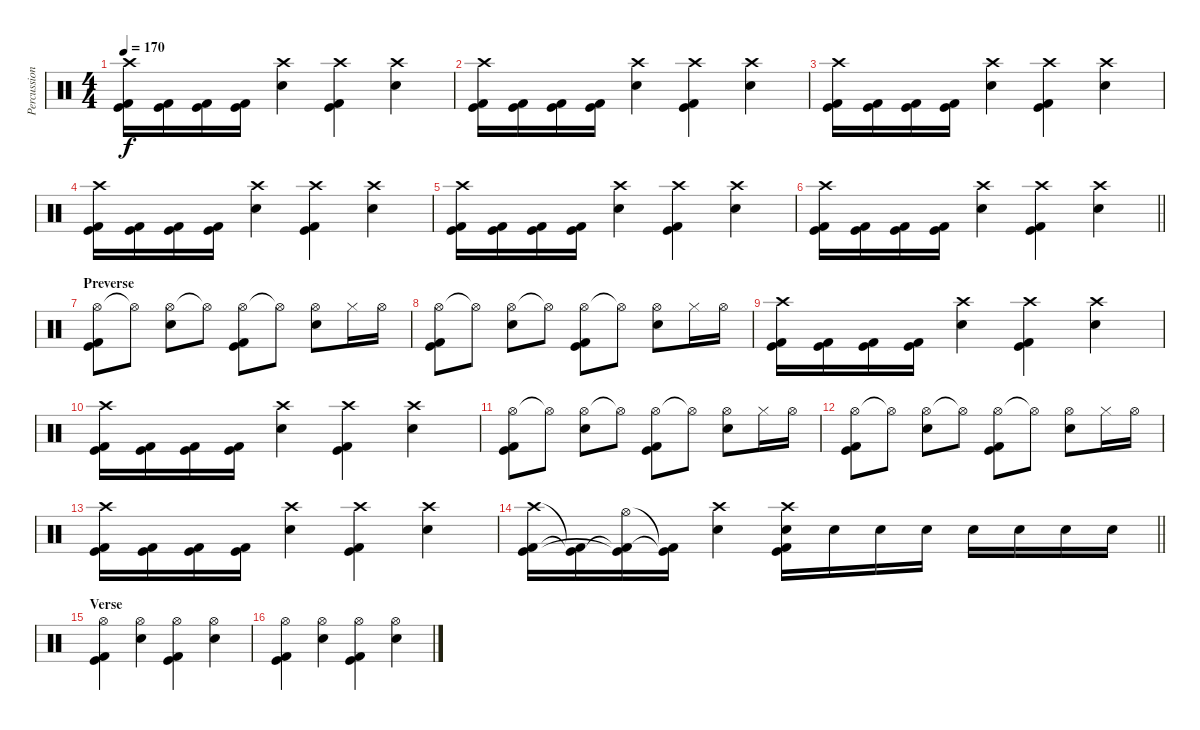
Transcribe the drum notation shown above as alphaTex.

\track ("Percussion" "Percussion") {instrument percussion}
\staff {score}
\articulation defaults
\ts (4 4)
\tempo 170
\clef neutral
\ks c
("Crash high (hit)" "Kick (hit) 2" "Kick (hit)").16{dy f} ("Kick (hit) 2" "Kick (hit)").16 ("Kick (hit) 2" "Kick (hit)").16 ("Kick (hit) 2" "Kick (hit)").16 ("Crash high (hit)" "Electric Snare (hit)").4 ("Crash high (hit)" "Kick (hit) 2" "Kick (hit)").4 ("Crash high (hit)" "Electric Snare (hit)").4 |
("Crash high (hit)" "Kick (hit) 2" "Kick (hit)").16 ("Kick (hit) 2" "Kick (hit)").16 ("Kick (hit) 2" "Kick (hit)").16 ("Kick (hit) 2" "Kick (hit)").16 ("Crash high (hit)" "Electric Snare (hit)").4 ("Crash high (hit)" "Kick (hit) 2" "Kick (hit)").4 ("Crash high (hit)" "Electric Snare (hit)").4 |
("Crash high (hit)" "Kick (hit) 2" "Kick (hit)").16 ("Kick (hit) 2" "Kick (hit)").16 ("Kick (hit) 2" "Kick (hit)").16 ("Kick (hit) 2" "Kick (hit)").16 ("Crash high (hit)" "Electric Snare (hit)").4 ("Crash high (hit)" "Kick (hit) 2" "Kick (hit)").4 ("Crash high (hit)" "Electric Snare (hit)").4 |
("Crash high (hit)" "Kick (hit) 2" "Kick (hit)").16 ("Kick (hit) 2" "Kick (hit)").16 ("Kick (hit) 2" "Kick (hit)").16 ("Kick (hit) 2" "Kick (hit)").16 ("Crash high (hit)" "Electric Snare (hit)").4 ("Crash high (hit)" "Kick (hit) 2" "Kick (hit)").4 ("Crash high (hit)" "Electric Snare (hit)").4 |
("Crash high (hit)" "Kick (hit) 2" "Kick (hit)").16 ("Kick (hit) 2" "Kick (hit)").16 ("Kick (hit) 2" "Kick (hit)").16 ("Kick (hit) 2" "Kick (hit)").16 ("Crash high (hit)" "Electric Snare (hit)").4 ("Crash high (hit)" "Kick (hit) 2" "Kick (hit)").4 ("Crash high (hit)" "Electric Snare (hit)").4 |
\barLineRight lightlight
("Crash high (hit)" "Kick (hit) 2" "Kick (hit)").16 ("Kick (hit) 2" "Kick (hit)").16 ("Kick (hit) 2" "Kick (hit)").16 ("Kick (hit) 2" "Kick (hit)").16 ("Crash high (hit)" "Electric Snare (hit)").4 ("Crash high (hit)" "Kick (hit) 2" "Kick (hit)").4 ("Crash high (hit)" "Electric Snare (hit)").4 |
\section ("" "Preverse")
("Hi-Hat (open)" "Kick (hit) 2" "Kick (hit)").8 "Hi-Hat (open)"{t}.8 ("Hi-Hat (open)" "Electric Snare (hit)").8 "Hi-Hat (open)"{t}.8 ("Hi-Hat (open)" "Kick (hit) 2" "Kick (hit)").8 "Hi-Hat (open)"{t}.8 ("Hi-Hat (open)" "Electric Snare (hit)").8 "Hi-Hat (closed)".16 "Hi-Hat (open)".16 |
("Hi-Hat (open)" "Kick (hit) 2" "Kick (hit)").8 "Hi-Hat (open)"{t}.8 ("Hi-Hat (open)" "Electric Snare (hit)").8 "Hi-Hat (open)"{t}.8 ("Hi-Hat (open)" "Kick (hit) 2" "Kick (hit)").8 "Hi-Hat (open)"{t}.8 ("Hi-Hat (open)" "Electric Snare (hit)").8 "Hi-Hat (closed)".16 "Hi-Hat (open)".16 |
("Crash high (hit)" "Kick (hit) 2" "Kick (hit)").16 ("Kick (hit) 2" "Kick (hit)").16 ("Kick (hit) 2" "Kick (hit)").16 ("Kick (hit) 2" "Kick (hit)").16 ("Crash high (hit)" "Electric Snare (hit)").4 ("Crash high (hit)" "Kick (hit) 2" "Kick (hit)").4 ("Crash high (hit)" "Electric Snare (hit)").4 |
("Crash high (hit)" "Kick (hit) 2" "Kick (hit)").16 ("Kick (hit) 2" "Kick (hit)").16 ("Kick (hit) 2" "Kick (hit)").16 ("Kick (hit) 2" "Kick (hit)").16 ("Crash high (hit)" "Electric Snare (hit)").4 ("Crash high (hit)" "Kick (hit) 2" "Kick (hit)").4 ("Crash high (hit)" "Electric Snare (hit)").4 |
("Hi-Hat (open)" "Kick (hit) 2" "Kick (hit)").8 "Hi-Hat (open)"{t}.8 ("Hi-Hat (open)" "Electric Snare (hit)").8 "Hi-Hat (open)"{t}.8 ("Hi-Hat (open)" "Kick (hit) 2" "Kick (hit)").8 "Hi-Hat (open)"{t}.8 ("Hi-Hat (open)" "Electric Snare (hit)").8 "Hi-Hat (closed)".16 "Hi-Hat (open)".16 |
("Hi-Hat (open)" "Kick (hit) 2" "Kick (hit)").8 "Hi-Hat (open)"{t}.8 ("Hi-Hat (open)" "Electric Snare (hit)").8 "Hi-Hat (open)"{t}.8 ("Hi-Hat (open)" "Kick (hit) 2" "Kick (hit)").8 "Hi-Hat (open)"{t}.8 ("Hi-Hat (open)" "Electric Snare (hit)").8 "Hi-Hat (closed)".16 "Hi-Hat (open)".16 |
("Crash high (hit)" "Kick (hit) 2" "Kick (hit)").16 ("Kick (hit) 2" "Kick (hit)").16 ("Kick (hit) 2" "Kick (hit)").16 ("Kick (hit) 2" "Kick (hit)").16 ("Crash high (hit)" "Electric Snare (hit)").4 ("Crash high (hit)" "Kick (hit) 2" "Kick (hit)").4 ("Crash high (hit)" "Electric Snare (hit)").4 |
\barLineRight lightlight
("Crash high (hit)" "Kick (hit) 2" "Kick (hit)").16 ("Kick (hit) 2"{t} "Kick (hit)"{t}).16 ("Hi-Hat (open)" "Kick (hit) 2"{t} "Kick (hit)"{t}).16 ("Kick (hit) 2"{t} "Kick (hit)"{t}).16 ("Crash high (hit)" "Electric Snare (hit)").4 ("Crash high (hit)" "Electric Snare (hit)" "Kick (hit) 2" "Kick (hit)").16 "Electric Snare (hit)".16 "Electric Snare (hit)".16 "Electric Snare (hit)".16 "Electric Snare (hit)".16 "Electric Snare (hit)".16 "Electric Snare (hit)".16 "Electric Snare (hit)".16 |
\section ("" "Verse")
("Hi-Hat (open)" "Kick (hit) 2" "Kick (hit)").4 ("Hi-Hat (open)" "Electric Snare (hit)").4 ("Hi-Hat (open)" "Kick (hit) 2" "Kick (hit)").4 ("Hi-Hat (open)" "Electric Snare (hit)").4 |
("Hi-Hat (open)" "Kick (hit) 2" "Kick (hit)").4 ("Hi-Hat (open)" "Electric Snare (hit)").4 ("Hi-Hat (open)" "Kick (hit) 2" "Kick (hit)").4 ("Hi-Hat (open)" "Electric Snare (hit)").4
